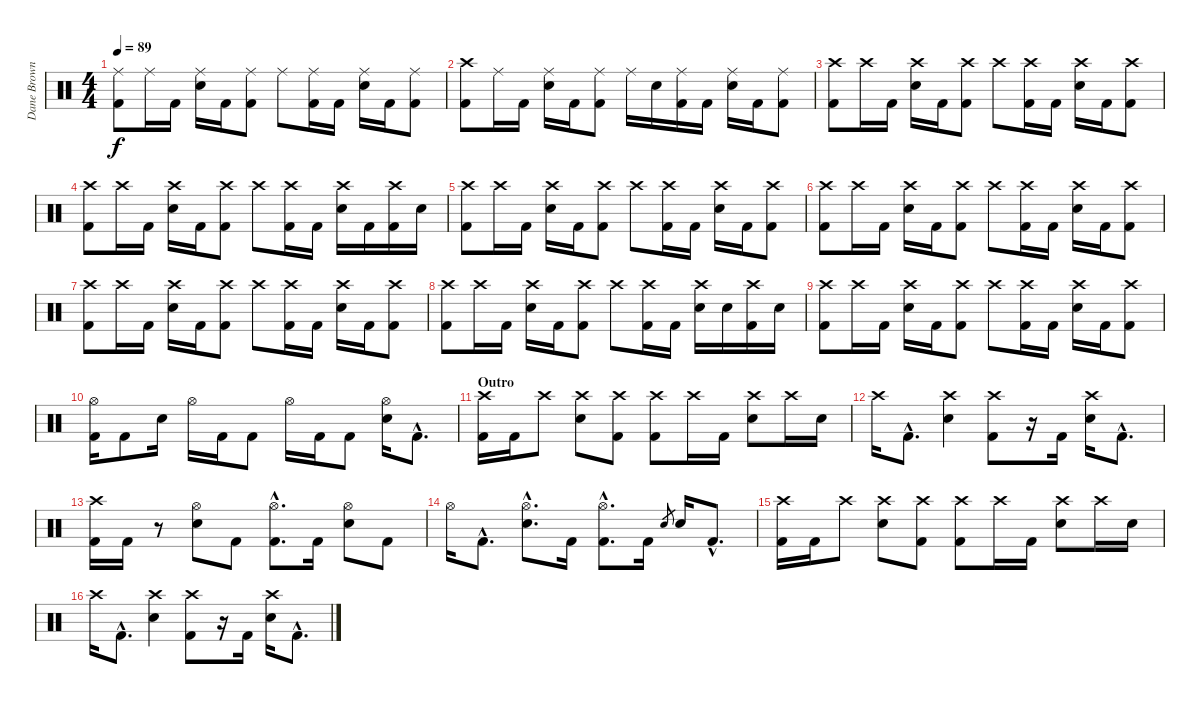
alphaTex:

\track ("Dane Brown (drums)" "Dane Brown") {instrument percussion}
\staff {score}
\articulation defaults
\ts (4 4)
\tempo 89
\clef neutral
\ks c
("Ride (middle)" "Kick (hit) 2").8{dy f} "Ride (middle)".16 "Kick (hit) 2".16 ("Ride (middle)" "Electric Snare (hit)").16 "Kick (hit) 2".16 ("Ride (middle)" "Kick (hit) 2").8 "Ride (middle)".8 ("Ride (middle)" "Kick (hit) 2").16 "Kick (hit) 2".16 ("Ride (middle)" "Electric Snare (hit)").16 "Kick (hit) 2".16 ("Ride (middle)" "Kick (hit) 2").8 |
("Crash high (hit)" "Kick (hit) 2").8 "Ride (middle)".16 "Kick (hit) 2".16 ("Ride (middle)" "Electric Snare (hit)").16 "Kick (hit) 2".16 ("Ride (middle)" "Kick (hit) 2").8 "Ride (middle)".16 "Electric Snare (hit)".16 ("Ride (middle)" "Kick (hit) 2").16 "Kick (hit) 2".16 ("Ride (middle)" "Electric Snare (hit)").16 "Kick (hit) 2".16 ("Ride (middle)" "Kick (hit) 2").8 |
("Crash high (hit)" "Kick (hit) 2").8 "Crash high (hit)".16 "Kick (hit) 2".16 ("Crash high (hit)" "Electric Snare (hit)").16 "Kick (hit) 2".16 ("Crash high (hit)" "Kick (hit) 2").8 "Crash high (hit)".8 ("Crash high (hit)" "Kick (hit) 2").16 "Kick (hit) 2".16 ("Crash high (hit)" "Electric Snare (hit)").16 "Kick (hit) 2".16 ("Crash high (hit)" "Kick (hit) 2").8 |
("Crash high (hit)" "Kick (hit) 2").8 "Crash high (hit)".16 "Kick (hit) 2".16 ("Crash high (hit)" "Electric Snare (hit)").16 "Kick (hit) 2".16 ("Crash high (hit)" "Kick (hit) 2").8 "Crash high (hit)".8 ("Crash high (hit)" "Kick (hit) 2").16 "Kick (hit) 2".16 ("Crash high (hit)" "Electric Snare (hit)").16 "Kick (hit) 2".16 ("Crash high (hit)" "Kick (hit) 2").16 "Electric Snare (hit)".16 |
("Crash high (hit)" "Kick (hit) 2").8 "Crash high (hit)".16 "Kick (hit) 2".16 ("Crash high (hit)" "Electric Snare (hit)").16 "Kick (hit) 2".16 ("Crash high (hit)" "Kick (hit) 2").8 "Crash high (hit)".8 ("Crash high (hit)" "Kick (hit) 2").16 "Kick (hit) 2".16 ("Crash high (hit)" "Electric Snare (hit)").16 "Kick (hit) 2".16 ("Crash high (hit)" "Kick (hit) 2").8 |
("Crash high (hit)" "Kick (hit) 2").8 "Crash high (hit)".16 "Kick (hit) 2".16 ("Crash high (hit)" "Electric Snare (hit)").16 "Kick (hit) 2".16 ("Crash high (hit)" "Kick (hit) 2").8 "Crash high (hit)".8 ("Crash high (hit)" "Kick (hit) 2").16 "Kick (hit) 2".16 ("Crash high (hit)" "Electric Snare (hit)").16 "Kick (hit) 2".16 ("Crash high (hit)" "Kick (hit) 2").8 |
("Crash high (hit)" "Kick (hit) 2").8 "Crash high (hit)".16 "Kick (hit) 2".16 ("Crash high (hit)" "Electric Snare (hit)").16 "Kick (hit) 2".16 ("Crash high (hit)" "Kick (hit) 2").8 "Crash high (hit)".8 ("Crash high (hit)" "Kick (hit) 2").16 "Kick (hit) 2".16 ("Crash high (hit)" "Electric Snare (hit)").16 "Kick (hit) 2".16 ("Crash high (hit)" "Kick (hit) 2").8 |
("Crash high (hit)" "Kick (hit) 2").8 "Crash high (hit)".16 "Kick (hit) 2".16 ("Crash high (hit)" "Electric Snare (hit)").16 "Kick (hit) 2".16 ("Crash high (hit)" "Kick (hit) 2").8 "Crash high (hit)".8 ("Crash high (hit)" "Kick (hit) 2").16 "Kick (hit) 2".16 ("Crash high (hit)" "Electric Snare (hit)").16 "Electric Snare (hit)".16 ("Crash high (hit)" "Kick (hit) 2").16 "Electric Snare (hit)".16 |
("Crash high (hit)" "Kick (hit) 2").8 "Crash high (hit)".16 "Kick (hit) 2".16 ("Crash high (hit)" "Electric Snare (hit)").16 "Kick (hit) 2".16 ("Crash high (hit)" "Kick (hit) 2").8 "Crash high (hit)".8 ("Crash high (hit)" "Kick (hit) 2").16 "Kick (hit) 2".16 ("Crash high (hit)" "Electric Snare (hit)").16 "Kick (hit) 2".16 ("Crash high (hit)" "Kick (hit) 2").8 |
("Hi-Hat (open)" "Kick (hit) 2").16 "Kick (hit) 2".8 "Electric Snare (hit)".16 "Hi-Hat (open)".16 "Kick (hit) 2".16 "Kick (hit) 2".8 "Hi-Hat (open)".16 "Kick (hit) 2".16 "Kick (hit) 2".8 ("Hi-Hat (open)" "Electric Snare (hit)").16 "Kick (hit) 2"{hac}.8{d} |
\section ("" "Outro")
("Crash high (hit)" "Kick (hit) 2").16 "Kick (hit) 2".16 "Crash high (hit)".8 ("Crash high (hit)" "Electric Snare (hit)").8 ("Crash high (hit)" "Kick (hit) 2").8 ("Crash high (hit)" "Kick (hit) 2").8 "Crash high (hit)".16 "Kick (hit) 2".16 ("Crash high (hit)" "Electric Snare (hit)").8 "Crash high (hit)".16 "Electric Snare (hit)".16 |
"Crash high (hit)".16 "Kick (hit) 2"{hac}.8{d} ("Crash high (hit)" "Electric Snare (hit)").4 ("Crash high (hit)" "Kick (hit) 2").8 r.16 "Kick (hit) 2".16 ("Crash high (hit)" "Electric Snare (hit)").16 "Kick (hit) 2"{hac}.8{d} |
("Crash high (hit)" "Kick (hit) 2").16 "Kick (hit) 2".16 r.8 ("Hi-Hat (open)" "Electric Snare (hit)").8 "Kick (hit) 2".8 ("Hi-Hat (open)"{hac} "Kick (hit) 2"{hac}).8{d} "Kick (hit) 2".16 ("Hi-Hat (open)" "Electric Snare (hit)").8 "Kick (hit) 2".8 |
"Hi-Hat (open)".16 "Kick (hit) 2"{hac}.8{d} ("Hi-Hat (open)"{hac} "Electric Snare (hit)"{hac}).8{d} "Kick (hit) 2".16 ("Hi-Hat (open)"{hac} "Kick (hit) 2"{hac}).8{d} "Kick (hit) 2".16 "Electric Snare (hit)".8{gr} "Electric Snare (hit)".16 "Kick (hit) 2"{hac}.8{d} |
("Crash high (hit)" "Kick (hit) 2").16 "Kick (hit) 2".16 "Crash high (hit)".8 ("Crash high (hit)" "Electric Snare (hit)").8 ("Crash high (hit)" "Kick (hit) 2").8 ("Crash high (hit)" "Kick (hit) 2").8 "Crash high (hit)".16 "Kick (hit) 2".16 ("Crash high (hit)" "Electric Snare (hit)").8 "Crash high (hit)".16 "Electric Snare (hit)".16 |
"Crash high (hit)".16 "Kick (hit) 2"{hac}.8{d} ("Crash high (hit)" "Electric Snare (hit)").4 ("Crash high (hit)" "Kick (hit) 2").8 r.16 "Kick (hit) 2".16 ("Crash high (hit)" "Electric Snare (hit)").16 "Kick (hit) 2"{hac}.8{d}
